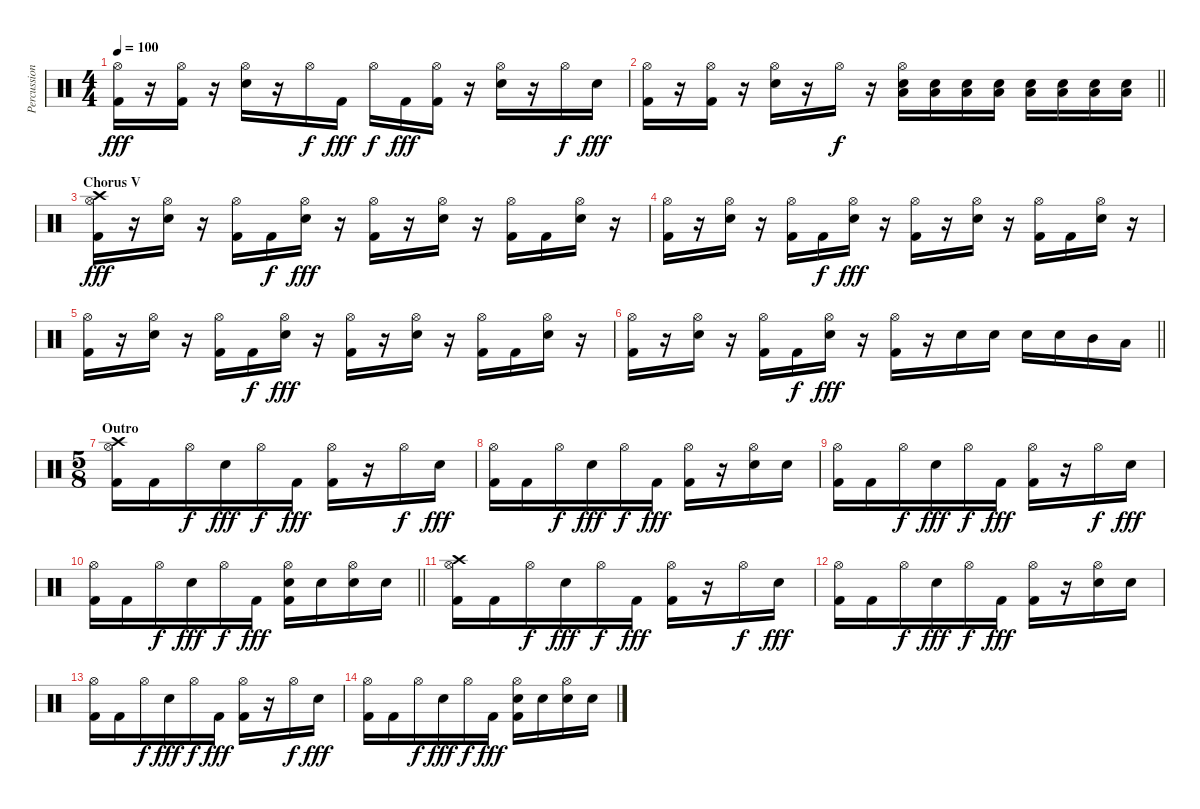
\track ("Percussion" "Percussion") {instrument percussion}
\staff
\articulation defaults
\ts (4 4)
\tempo 100
\clef neutral
\ks c
("Kick (hit) 2" "Hi-Hat (open)").16{dy fff} r.16 ("Kick (hit) 2" "Hi-Hat (open)").16 r.16 ("Electric Snare (hit)" "Hi-Hat (open)").16 r.16 "Hi-Hat (open)".16{dy f} "Kick (hit) 2".16{dy fff} "Hi-Hat (open)".16{dy f} "Kick (hit) 2".16{dy fff} ("Kick (hit) 2" "Hi-Hat (open)").16 r.16 ("Electric Snare (hit)" "Hi-Hat (open)").16 r.16 "Hi-Hat (open)".16{dy f} "Electric Snare (hit)".16{dy fff} |
\barLineRight lightlight
("Kick (hit) 2" "Hi-Hat (open)").16 r.16 ("Kick (hit) 2" "Hi-Hat (open)").16 r.16 ("Electric Snare (hit)" "Hi-Hat (open)").16 r.16 "Hi-Hat (open)".16{dy f} r.16 ("Electric Snare (hit)" "Low Tom (hit)" "Hi-Hat (open)").16 ("Electric Snare (hit)" "Low Tom (hit)").16 ("Electric Snare (hit)" "Low Tom (hit)").16 ("Electric Snare (hit)" "Low Tom (hit)").16 ("Electric Snare (hit)" "Low Tom (hit)").16 ("Electric Snare (hit)" "Low Tom (hit)").16 ("Electric Snare (hit)" "Low Tom (hit)").16 ("Electric Snare (hit)" "Low Tom (hit)").16 |
\section ("" "Chorus V")
("Kick (hit) 2" "Hi-Hat (open)" "Crash high (hit)").16{dy fff} r.16 ("Electric Snare (hit)" "Hi-Hat (open)").16 r.16 ("Kick (hit) 2" "Hi-Hat (open)").16 "Kick (hit) 2".16{dy f} ("Electric Snare (hit)" "Hi-Hat (open)").16{dy fff} r.16 ("Kick (hit) 2" "Hi-Hat (open)").16 r.16 ("Electric Snare (hit)" "Hi-Hat (open)").16 r.16 ("Kick (hit) 2" "Hi-Hat (open)").16 "Kick (hit) 2".16 ("Electric Snare (hit)" "Hi-Hat (open)").16 r.16 |
("Kick (hit) 2" "Hi-Hat (open)").16 r.16 ("Electric Snare (hit)" "Hi-Hat (open)").16 r.16 ("Kick (hit) 2" "Hi-Hat (open)").16 "Kick (hit) 2".16{dy f} ("Electric Snare (hit)" "Hi-Hat (open)").16{dy fff} r.16 ("Kick (hit) 2" "Hi-Hat (open)").16 r.16 ("Electric Snare (hit)" "Hi-Hat (open)").16 r.16 ("Kick (hit) 2" "Hi-Hat (open)").16 "Kick (hit) 2".16 ("Electric Snare (hit)" "Hi-Hat (open)").16 r.16 |
("Kick (hit) 2" "Hi-Hat (open)").16 r.16 ("Electric Snare (hit)" "Hi-Hat (open)").16 r.16 ("Kick (hit) 2" "Hi-Hat (open)").16 "Kick (hit) 2".16{dy f} ("Electric Snare (hit)" "Hi-Hat (open)").16{dy fff} r.16 ("Kick (hit) 2" "Hi-Hat (open)").16 r.16 ("Electric Snare (hit)" "Hi-Hat (open)").16 r.16 ("Kick (hit) 2" "Hi-Hat (open)").16 "Kick (hit) 2".16 ("Electric Snare (hit)" "Hi-Hat (open)").16 r.16 |
\barLineRight lightlight
("Kick (hit) 2" "Hi-Hat (open)").16 r.16 ("Electric Snare (hit)" "Hi-Hat (open)").16 r.16 ("Kick (hit) 2" "Hi-Hat (open)").16 "Kick (hit) 2".16{dy f} ("Electric Snare (hit)" "Hi-Hat (open)").16{dy fff} r.16 ("Kick (hit) 2" "Hi-Hat (open)").16 r.16 "Electric Snare (hit)".16 "Electric Snare (hit)".16 "Electric Snare (hit)".16 "Electric Snare (hit)".16 "Mid Tom (hit)".16 "Low Tom (hit)".16 |
\ts (5 8)
\section ("" "Outro")
("Kick (hit) 2" "Hi-Hat (open)" "Crash high (hit)").16 "Kick (hit) 2".16 "Hi-Hat (open)".16{dy f} "Electric Snare (hit)".16{dy fff} "Hi-Hat (open)".16{dy f} "Kick (hit) 2".16{dy fff} ("Kick (hit) 2" "Hi-Hat (open)").16 r.16 "Hi-Hat (open)".16{dy f} "Electric Snare (hit)".16{dy fff} |
("Kick (hit) 2" "Hi-Hat (open)").16 "Kick (hit) 2".16 "Hi-Hat (open)".16{dy f} "Electric Snare (hit)".16{dy fff} "Hi-Hat (open)".16{dy f} "Kick (hit) 2".16{dy fff} ("Kick (hit) 2" "Hi-Hat (open)").16 r.16 ("Electric Snare (hit)" "Hi-Hat (open)").16 "Electric Snare (hit)".16 |
("Kick (hit) 2" "Hi-Hat (open)").16 "Kick (hit) 2".16 "Hi-Hat (open)".16{dy f} "Electric Snare (hit)".16{dy fff} "Hi-Hat (open)".16{dy f} "Kick (hit) 2".16{dy fff} ("Kick (hit) 2" "Hi-Hat (open)").16 r.16 "Hi-Hat (open)".16{dy f} "Electric Snare (hit)".16{dy fff} |
\barLineRight lightlight
("Kick (hit) 2" "Hi-Hat (open)").16 "Kick (hit) 2".16 "Hi-Hat (open)".16{dy f} "Electric Snare (hit)".16{dy fff} "Hi-Hat (open)".16{dy f} "Kick (hit) 2".16{dy fff} ("Kick (hit) 2" "Electric Snare (hit)" "Hi-Hat (open)").16 "Electric Snare (hit)".16 ("Electric Snare (hit)" "Hi-Hat (open)").16 "Electric Snare (hit)".16 |
("Kick (hit) 2" "Hi-Hat (open)" "Crash high (hit)").16 "Kick (hit) 2".16 "Hi-Hat (open)".16{dy f} "Electric Snare (hit)".16{dy fff} "Hi-Hat (open)".16{dy f} "Kick (hit) 2".16{dy fff} ("Kick (hit) 2" "Hi-Hat (open)").16 r.16 "Hi-Hat (open)".16{dy f} "Electric Snare (hit)".16{dy fff} |
("Kick (hit) 2" "Hi-Hat (open)").16 "Kick (hit) 2".16 "Hi-Hat (open)".16{dy f} "Electric Snare (hit)".16{dy fff} "Hi-Hat (open)".16{dy f} "Kick (hit) 2".16{dy fff} ("Kick (hit) 2" "Hi-Hat (open)").16 r.16 ("Electric Snare (hit)" "Hi-Hat (open)").16 "Electric Snare (hit)".16 |
("Kick (hit) 2" "Hi-Hat (open)").16 "Kick (hit) 2".16 "Hi-Hat (open)".16{dy f} "Electric Snare (hit)".16{dy fff} "Hi-Hat (open)".16{dy f} "Kick (hit) 2".16{dy fff} ("Kick (hit) 2" "Hi-Hat (open)").16 r.16 "Hi-Hat (open)".16{dy f} "Electric Snare (hit)".16{dy fff} |
("Kick (hit) 2" "Hi-Hat (open)").16 "Kick (hit) 2".16 "Hi-Hat (open)".16{dy f} "Electric Snare (hit)".16{dy fff} "Hi-Hat (open)".16{dy f} "Kick (hit) 2".16{dy fff} ("Kick (hit) 2" "Electric Snare (hit)" "Hi-Hat (open)").16 "Electric Snare (hit)".16 ("Electric Snare (hit)" "Hi-Hat (open)").16 "Electric Snare (hit)".16
